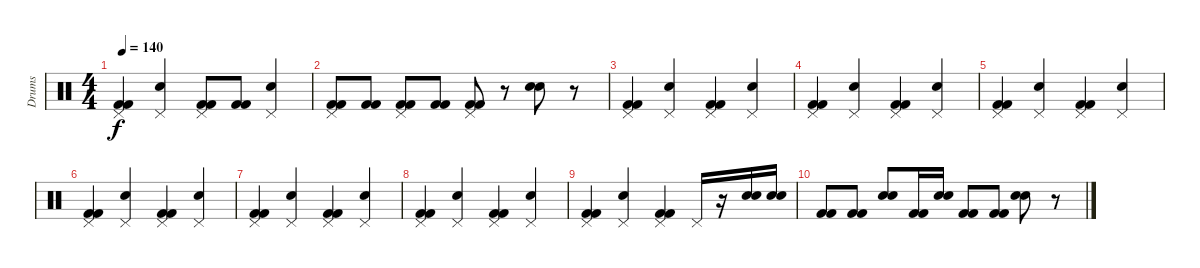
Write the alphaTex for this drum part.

\track ("Drums" "Drums") {instrument percussion}
\staff {score}
\articulation defaults
\ts (4 4)
\tempo 140
\clef neutral
\ks c
("Pedal Hi-Hat (hit)" "Kick (hit) 2" "Kick (hit) 2").4{dy f} ("Pedal Hi-Hat (hit)" "Snare (hit) 2").4 ("Pedal Hi-Hat (hit)" "Kick (hit) 2" "Kick (hit) 2").8 ("Kick (hit) 2" "Kick (hit) 2").8 ("Pedal Hi-Hat (hit)" "Snare (hit) 2").4 |
("Pedal Hi-Hat (hit)" "Kick (hit) 2" "Kick (hit) 2").8 ("Kick (hit) 2" "Kick (hit) 2").8 ("Pedal Hi-Hat (hit)" "Kick (hit) 2" "Kick (hit) 2").8 ("Kick (hit) 2" "Kick (hit) 2").8 ("Pedal Hi-Hat (hit)" "Kick (hit) 2" "Kick (hit) 2").8 r.8 ("Hand Clap (hit)" "Snare (hit) 2").8 r.8 |
("Pedal Hi-Hat (hit)" "Kick (hit) 2" "Kick (hit) 2").4 ("Pedal Hi-Hat (hit)" "Snare (hit) 2").4 ("Pedal Hi-Hat (hit)" "Kick (hit) 2" "Kick (hit) 2").4 ("Pedal Hi-Hat (hit)" "Snare (hit) 2").4 |
("Pedal Hi-Hat (hit)" "Kick (hit) 2" "Kick (hit) 2").4 ("Pedal Hi-Hat (hit)" "Snare (hit) 2").4 ("Pedal Hi-Hat (hit)" "Kick (hit) 2" "Kick (hit) 2").4 ("Pedal Hi-Hat (hit)" "Snare (hit) 2").4 |
("Pedal Hi-Hat (hit)" "Kick (hit) 2" "Kick (hit) 2").4 ("Pedal Hi-Hat (hit)" "Snare (hit) 2").4 ("Pedal Hi-Hat (hit)" "Kick (hit) 2" "Kick (hit) 2").4 ("Pedal Hi-Hat (hit)" "Snare (hit) 2").4 |
("Pedal Hi-Hat (hit)" "Kick (hit) 2" "Kick (hit) 2").4 ("Pedal Hi-Hat (hit)" "Snare (hit) 2").4 ("Pedal Hi-Hat (hit)" "Kick (hit) 2" "Kick (hit) 2").4 ("Pedal Hi-Hat (hit)" "Snare (hit) 2").4 |
("Pedal Hi-Hat (hit)" "Kick (hit) 2" "Kick (hit) 2").4 ("Pedal Hi-Hat (hit)" "Snare (hit) 2").4 ("Pedal Hi-Hat (hit)" "Kick (hit) 2" "Kick (hit) 2").4 ("Pedal Hi-Hat (hit)" "Snare (hit) 2").4 |
("Pedal Hi-Hat (hit)" "Kick (hit) 2" "Kick (hit) 2").4 ("Pedal Hi-Hat (hit)" "Snare (hit) 2").4 ("Pedal Hi-Hat (hit)" "Kick (hit) 2" "Kick (hit) 2").4 ("Pedal Hi-Hat (hit)" "Snare (hit) 2").4 |
("Pedal Hi-Hat (hit)" "Kick (hit) 2" "Kick (hit) 2").4 ("Pedal Hi-Hat (hit)" "Snare (hit) 2").4 ("Pedal Hi-Hat (hit)" "Kick (hit) 2" "Kick (hit) 2").4 "Pedal Hi-Hat (hit)".16 r.16 ("Hand Clap (hit)" "Snare (hit) 2").16 ("Hand Clap (hit)" "Snare (hit) 2").16 |
("Kick (hit) 2" "Kick (hit) 2").8 ("Kick (hit) 2" "Kick (hit) 2").8 ("Hand Clap (hit)" "Snare (hit) 2").8 ("Kick (hit) 2" "Kick (hit) 2").16 ("Hand Clap (hit)" "Snare (hit) 2").16 ("Kick (hit) 2" "Kick (hit) 2").8 ("Kick (hit) 2" "Kick (hit) 2").8 ("Hand Clap (hit)" "Snare (hit) 2").8 r.8
